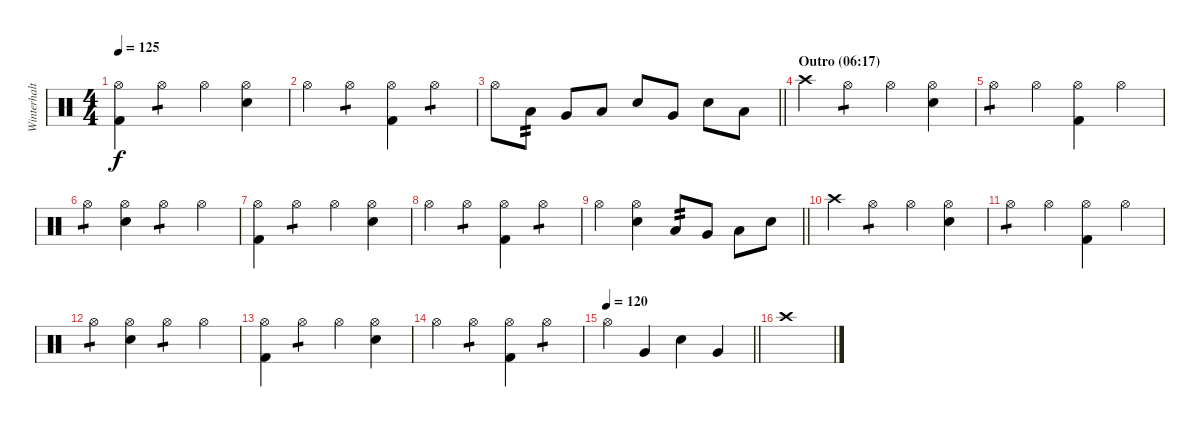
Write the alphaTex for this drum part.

\track ("Winterhalten" "Winterhalt") {instrument percussion}
\staff {score}
\articulation defaults
\ts (4 4)
\tempo 125
\clef neutral
\ks c
("Hi-Hat (open)" "Kick (hit) 2").4{dy f} "Hi-Hat (open)".4{tp 1} "Hi-Hat (open)".4 ("Hi-Hat (open)" "Snare (hit) 2").4 |
"Hi-Hat (open)".4 "Hi-Hat (open)".4{tp 1} ("Hi-Hat (open)" "Kick (hit) 2").4 "Hi-Hat (open)".4{tp 1} |
\barLineRight lightlight "Hi-Hat (open)".8 "Low Tom (hit)".8{tp 2} "Very Low Tom (hit)".8 "Low Tom (hit)".8 "Snare (hit) 2".8 "Very Low Tom (hit)".8 "Snare (hit) 2".8 "Low Floor Tom (hit)".8
|
\section ("" "Outro (06:17)")
"Crash high (hit)".4 "Hi-Hat (open)".4{tp 1} "Hi-Hat (open)".4 ("Hi-Hat (open)" "Snare (hit) 2").4 |
"Hi-Hat (open)".4{tp 1} "Hi-Hat (open)".4 ("Hi-Hat (open)" "Kick (hit) 2").4 "Hi-Hat (open)".4 |
"Hi-Hat (open)".4{tp 1} ("Hi-Hat (open)" "Snare (hit) 2").4 "Hi-Hat (open)".4{tp 1} "Hi-Hat (open)".4 |
("Hi-Hat (open)" "Kick (hit) 2").4 "Hi-Hat (open)".4{tp 1} "Hi-Hat (open)".4 ("Hi-Hat (open)" "Snare (hit) 2").4 |
"Hi-Hat (open)".4 "Hi-Hat (open)".4{tp 1} ("Hi-Hat (open)" "Kick (hit) 2").4 "Hi-Hat (open)".4{tp 1} |
\barLineRight lightlight "Hi-Hat (open)".4
("Hi-Hat (open)" "Snare (hit) 2").4 "Low Tom (hit)".8{tp 2} "Very Low Tom (hit)".8 "Low Floor Tom (hit)".8 "Snare (hit) 2".8 |
"Crash high (hit)".4 "Hi-Hat (open)".4{tp 1} "Hi-Hat (open)".4 ("Hi-Hat (open)" "Snare (hit) 2").4 |
"Hi-Hat (open)".4{tp 1} "Hi-Hat (open)".4 ("Hi-Hat (open)" "Kick (hit) 2").4 "Hi-Hat (open)".4 |
"Hi-Hat (open)".4{tp 1} ("Hi-Hat (open)" "Snare (hit) 2").4 "Hi-Hat (open)".4{tp 1} "Hi-Hat (open)".4 |
("Hi-Hat (open)" "Kick (hit) 2").4 "Hi-Hat (open)".4{tp 1} "Hi-Hat (open)".4 ("Hi-Hat (open)" "Snare (hit) 2").4 |
"Hi-Hat (open)".4 "Hi-Hat (open)".4{tp 1} ("Hi-Hat (open)" "Kick (hit) 2").4 "Hi-Hat (open)".4{tp 1} |
\tempo 120
\barLineRight lightlight "Hi-Hat (open)".4 "Very Low Tom (hit)".4 "Snare (hit) 2".4 "Very Low Tom (hit)".4
|
"Crash high (hit)".1
